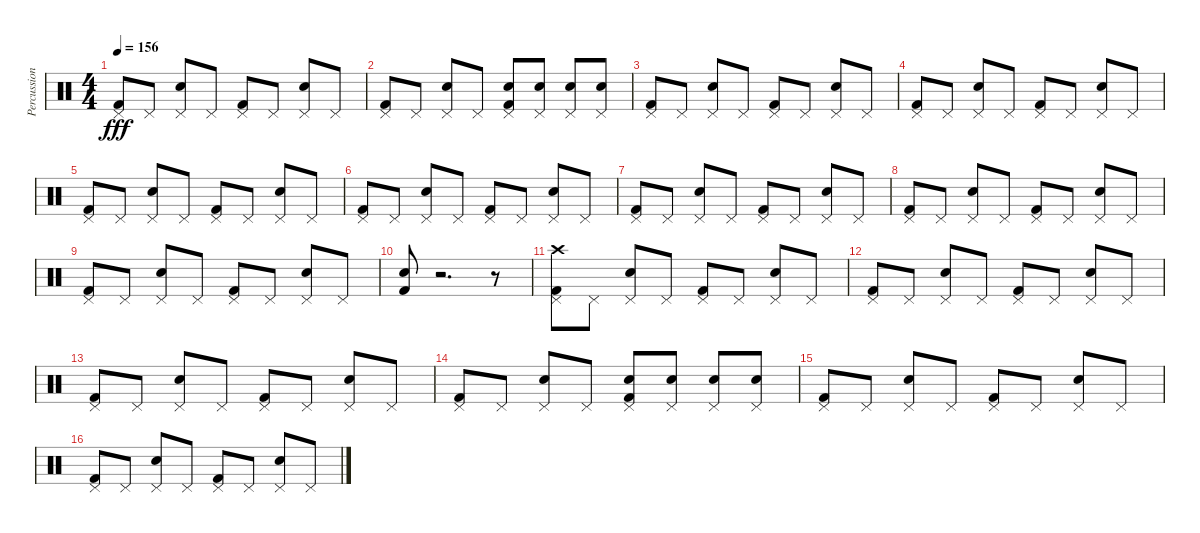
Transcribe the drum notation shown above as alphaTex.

\track ("Percussion" "Percussion") {instrument percussion}
\staff {score}
\articulation defaults
\ts (4 4)
\tempo 156
\clef neutral
\ks c
("Pedal Hi-Hat (hit)" "Kick (hit) 2").8{dy fff} "Pedal Hi-Hat (hit)".8 ("Pedal Hi-Hat (hit)" "Electric Snare (hit)").8 "Pedal Hi-Hat (hit)".8 ("Pedal Hi-Hat (hit)" "Kick (hit) 2").8 "Pedal Hi-Hat (hit)".8 ("Pedal Hi-Hat (hit)" "Electric Snare (hit)").8 "Pedal Hi-Hat (hit)".8 |
("Kick (hit) 2" "Pedal Hi-Hat (hit)").8 "Pedal Hi-Hat (hit)".8 ("Pedal Hi-Hat (hit)" "Electric Snare (hit)").8 "Pedal Hi-Hat (hit)".8 ("Pedal Hi-Hat (hit)" "Kick (hit) 2" "Electric Snare (hit)").8 ("Pedal Hi-Hat (hit)" "Electric Snare (hit)").8 ("Pedal Hi-Hat (hit)" "Electric Snare (hit)").8 ("Pedal Hi-Hat (hit)" "Electric Snare (hit)").8 |
("Pedal Hi-Hat (hit)" "Kick (hit) 2").8 "Pedal Hi-Hat (hit)".8 ("Pedal Hi-Hat (hit)" "Electric Snare (hit)").8 "Pedal Hi-Hat (hit)".8 ("Pedal Hi-Hat (hit)" "Kick (hit) 2").8 "Pedal Hi-Hat (hit)".8 ("Pedal Hi-Hat (hit)" "Electric Snare (hit)").8 "Pedal Hi-Hat (hit)".8 |
("Pedal Hi-Hat (hit)" "Kick (hit) 2").8 "Pedal Hi-Hat (hit)".8 ("Pedal Hi-Hat (hit)" "Electric Snare (hit)").8 "Pedal Hi-Hat (hit)".8 ("Pedal Hi-Hat (hit)" "Kick (hit) 2").8 "Pedal Hi-Hat (hit)".8 ("Pedal Hi-Hat (hit)" "Electric Snare (hit)").8 "Pedal Hi-Hat (hit)".8 |
("Pedal Hi-Hat (hit)" "Kick (hit) 2").8 "Pedal Hi-Hat (hit)".8 ("Pedal Hi-Hat (hit)" "Electric Snare (hit)").8 "Pedal Hi-Hat (hit)".8 ("Pedal Hi-Hat (hit)" "Kick (hit) 2").8 "Pedal Hi-Hat (hit)".8 ("Pedal Hi-Hat (hit)" "Electric Snare (hit)").8 "Pedal Hi-Hat (hit)".8 |
("Pedal Hi-Hat (hit)" "Kick (hit) 2").8 "Pedal Hi-Hat (hit)".8 ("Pedal Hi-Hat (hit)" "Electric Snare (hit)").8 "Pedal Hi-Hat (hit)".8 ("Pedal Hi-Hat (hit)" "Kick (hit) 2").8 "Pedal Hi-Hat (hit)".8 ("Pedal Hi-Hat (hit)" "Electric Snare (hit)").8 "Pedal Hi-Hat (hit)".8 |
("Pedal Hi-Hat (hit)" "Kick (hit) 2").8 "Pedal Hi-Hat (hit)".8 ("Pedal Hi-Hat (hit)" "Electric Snare (hit)").8 "Pedal Hi-Hat (hit)".8 ("Pedal Hi-Hat (hit)" "Kick (hit) 2").8 "Pedal Hi-Hat (hit)".8 ("Pedal Hi-Hat (hit)" "Electric Snare (hit)").8 "Pedal Hi-Hat (hit)".8 |
("Pedal Hi-Hat (hit)" "Kick (hit) 2").8 "Pedal Hi-Hat (hit)".8 ("Pedal Hi-Hat (hit)" "Electric Snare (hit)").8 "Pedal Hi-Hat (hit)".8 ("Pedal Hi-Hat (hit)" "Kick (hit) 2").8 "Pedal Hi-Hat (hit)".8 ("Pedal Hi-Hat (hit)" "Electric Snare (hit)").8 "Pedal Hi-Hat (hit)".8 |
("Pedal Hi-Hat (hit)" "Kick (hit) 2").8 "Pedal Hi-Hat (hit)".8 ("Pedal Hi-Hat (hit)" "Electric Snare (hit)").8 "Pedal Hi-Hat (hit)".8 ("Pedal Hi-Hat (hit)" "Kick (hit) 2").8 "Pedal Hi-Hat (hit)".8 ("Pedal Hi-Hat (hit)" "Electric Snare (hit)").8 "Pedal Hi-Hat (hit)".8 |
("Kick (hit) 2" "Electric Snare (hit)").8 r.2{d} r.8 |
("Kick (hit) 2" "Crash high (hit)" "Pedal Hi-Hat (hit)").8 "Pedal Hi-Hat (hit)".8 ("Pedal Hi-Hat (hit)" "Electric Snare (hit)").8 "Pedal Hi-Hat (hit)".8 ("Pedal Hi-Hat (hit)" "Kick (hit) 2").8 "Pedal Hi-Hat (hit)".8 ("Pedal Hi-Hat (hit)" "Electric Snare (hit)").8 "Pedal Hi-Hat (hit)".8 |
("Pedal Hi-Hat (hit)" "Kick (hit) 2").8 "Pedal Hi-Hat (hit)".8 ("Pedal Hi-Hat (hit)" "Electric Snare (hit)").8 "Pedal Hi-Hat (hit)".8 ("Pedal Hi-Hat (hit)" "Kick (hit) 2").8 "Pedal Hi-Hat (hit)".8 ("Pedal Hi-Hat (hit)" "Electric Snare (hit)").8 "Pedal Hi-Hat (hit)".8 |
("Pedal Hi-Hat (hit)" "Kick (hit) 2").8 "Pedal Hi-Hat (hit)".8 ("Pedal Hi-Hat (hit)" "Electric Snare (hit)").8 "Pedal Hi-Hat (hit)".8 ("Pedal Hi-Hat (hit)" "Kick (hit) 2").8 "Pedal Hi-Hat (hit)".8 ("Pedal Hi-Hat (hit)" "Electric Snare (hit)").8 "Pedal Hi-Hat (hit)".8 |
("Pedal Hi-Hat (hit)" "Kick (hit) 2").8 "Pedal Hi-Hat (hit)".8 ("Pedal Hi-Hat (hit)" "Electric Snare (hit)").8 "Pedal Hi-Hat (hit)".8 ("Pedal Hi-Hat (hit)" "Kick (hit) 2" "Electric Snare (hit)").8 ("Pedal Hi-Hat (hit)" "Electric Snare (hit)").8 ("Pedal Hi-Hat (hit)" "Electric Snare (hit)").8 ("Pedal Hi-Hat (hit)" "Electric Snare (hit)").8 |
("Pedal Hi-Hat (hit)" "Kick (hit) 2").8 "Pedal Hi-Hat (hit)".8 ("Pedal Hi-Hat (hit)" "Electric Snare (hit)").8 "Pedal Hi-Hat (hit)".8 ("Pedal Hi-Hat (hit)" "Kick (hit) 2").8 "Pedal Hi-Hat (hit)".8 ("Pedal Hi-Hat (hit)" "Electric Snare (hit)").8 "Pedal Hi-Hat (hit)".8 |
("Pedal Hi-Hat (hit)" "Kick (hit) 2").8 "Pedal Hi-Hat (hit)".8 ("Pedal Hi-Hat (hit)" "Electric Snare (hit)").8 "Pedal Hi-Hat (hit)".8 ("Pedal Hi-Hat (hit)" "Kick (hit) 2").8 "Pedal Hi-Hat (hit)".8 ("Pedal Hi-Hat (hit)" "Electric Snare (hit)").8 "Pedal Hi-Hat (hit)".8
